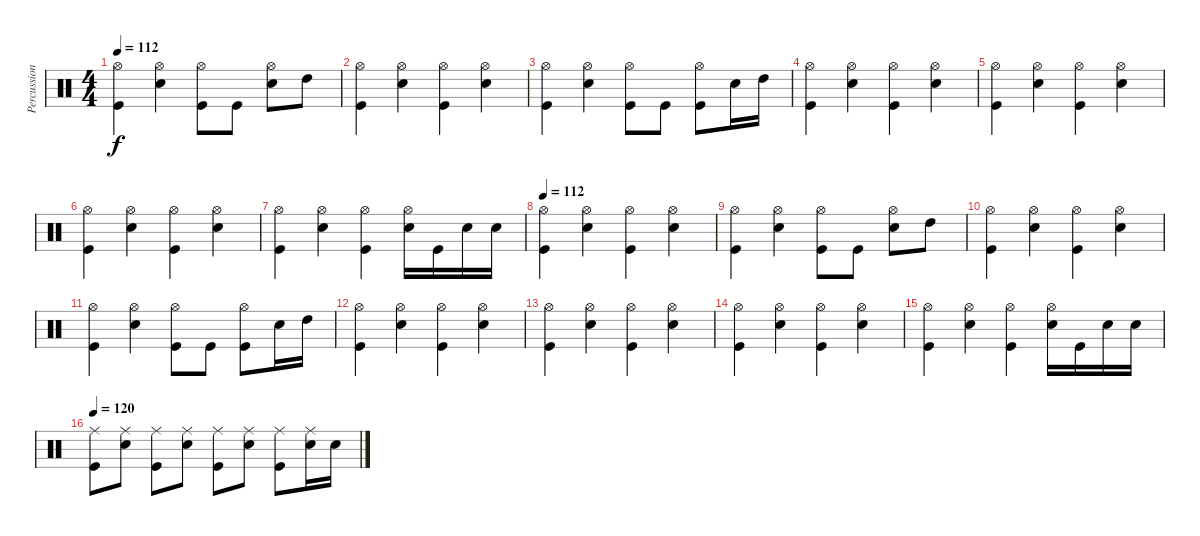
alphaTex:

\track ("Percussion" "Percussion") {instrument percussion}
\staff {score}
\articulation defaults
\ts (4 4)
\tempo 112
\clef neutral
\ks c
("Hi-Hat (open)" "Kick (hit)").4{dy f} ("Hi-Hat (open)" "Snare (hit) 2").4 ("Hi-Hat (open)" "Kick (hit)").8 "Kick (hit)".8 ("Hi-Hat (open)" "Snare (hit) 2").8 "High Tom (hit)".8 |
("Hi-Hat (open)" "Kick (hit)").4 ("Hi-Hat (open)" "Snare (hit) 2").4 ("Hi-Hat (open)" "Kick (hit)").4 ("Hi-Hat (open)" "Snare (hit) 2").4 |
("Hi-Hat (open)" "Kick (hit)").4 ("Hi-Hat (open)" "Snare (hit) 2").4 ("Hi-Hat (open)" "Kick (hit)").8 "Kick (hit)".8 ("Hi-Hat (open)" "Kick (hit)").8 "Snare (hit) 2".16 "High Tom (hit)".16 |
("Hi-Hat (open)" "Kick (hit)").4 ("Hi-Hat (open)" "Snare (hit) 2").4 ("Hi-Hat (open)" "Kick (hit)").4 ("Hi-Hat (open)" "Snare (hit) 2").4 |
("Hi-Hat (open)" "Kick (hit)").4 ("Hi-Hat (open)" "Snare (hit) 2").4 ("Hi-Hat (open)" "Kick (hit)").4 ("Hi-Hat (open)" "Snare (hit) 2").4 |
("Hi-Hat (open)" "Kick (hit)").4 ("Hi-Hat (open)" "Snare (hit) 2").4 ("Hi-Hat (open)" "Kick (hit)").4 ("Hi-Hat (open)" "Snare (hit) 2").4 |
("Hi-Hat (open)" "Kick (hit)").4 ("Hi-Hat (open)" "Snare (hit) 2").4 ("Hi-Hat (open)" "Kick (hit)").4 ("Hi-Hat (open)" "Snare (hit) 2").16 "Kick (hit)".16 "Snare (hit) 2".16 "Snare (hit) 2".16 |
\tempo 112
("Hi-Hat (open)" "Kick (hit)").4{volume 16} ("Hi-Hat (open)" "Snare (hit) 2").4 ("Hi-Hat (open)" "Kick (hit)").4 ("Hi-Hat (open)" "Snare (hit) 2").4 |
("Hi-Hat (open)" "Kick (hit)").4 ("Hi-Hat (open)" "Snare (hit) 2").4 ("Hi-Hat (open)" "Kick (hit)").8 "Kick (hit)".8 ("Hi-Hat (open)" "Snare (hit) 2").8 "High Tom (hit)".8 |
("Hi-Hat (open)" "Kick (hit)").4 ("Hi-Hat (open)" "Snare (hit) 2").4 ("Hi-Hat (open)" "Kick (hit)").4 ("Hi-Hat (open)" "Snare (hit) 2").4 |
("Hi-Hat (open)" "Kick (hit)").4 ("Hi-Hat (open)" "Snare (hit) 2").4 ("Hi-Hat (open)" "Kick (hit)").8 "Kick (hit)".8 ("Hi-Hat (open)" "Kick (hit)").8 "Snare (hit) 2".16 "High Tom (hit)".16 |
("Hi-Hat (open)" "Kick (hit)").4 ("Hi-Hat (open)" "Snare (hit) 2").4 ("Hi-Hat (open)" "Kick (hit)").4 ("Hi-Hat (open)" "Snare (hit) 2").4 |
("Hi-Hat (open)" "Kick (hit)").4 ("Hi-Hat (open)" "Snare (hit) 2").4 ("Hi-Hat (open)" "Kick (hit)").4 ("Hi-Hat (open)" "Snare (hit) 2").4 |
("Hi-Hat (open)" "Kick (hit)").4 ("Hi-Hat (open)" "Snare (hit) 2").4 ("Hi-Hat (open)" "Kick (hit)").4 ("Hi-Hat (open)" "Snare (hit) 2").4 |
("Hi-Hat (open)" "Kick (hit)").4 ("Hi-Hat (open)" "Snare (hit) 2").4 ("Hi-Hat (open)" "Kick (hit)").4 ("Hi-Hat (open)" "Snare (hit) 2").16 "Kick (hit)".16 "Snare (hit) 2".16 "Snare (hit) 2".16 |
\tempo 120
("Ride (middle)" "Kick (hit)").8 ("Ride (middle)" "Snare (hit) 2").8 ("Ride (middle)" "Kick (hit)").8 ("Ride (middle)" "Snare (hit) 2").8 ("Ride (middle)" "Kick (hit)").8 ("Ride (middle)" "Snare (hit) 2").8 ("Ride (middle)" "Kick (hit)").8 ("Ride (middle)" "Snare (hit) 2").16 "Snare (hit) 2".16
